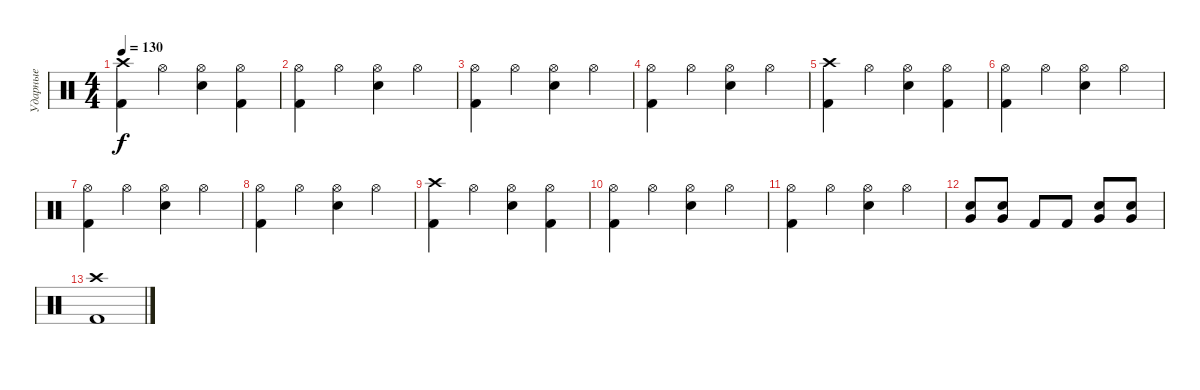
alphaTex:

\track ("Ударные" "Ударные") {instrument percussion}
\staff {score}
\articulation defaults
\ts (4 4)
\tempo 130
\clef neutral
\ks c
("Crash high (hit)" "Kick (hit) 2").4{dy f} "Hi-Hat (open)".4 ("Hi-Hat (open)" "Snare (hit) 2").4 ("Hi-Hat (open)" "Kick (hit) 2").4 |
("Hi-Hat (open)" "Kick (hit) 2").4 "Hi-Hat (open)".4 ("Hi-Hat (open)" "Snare (hit) 2").4 "Hi-Hat (open)".4 |
("Hi-Hat (open)" "Kick (hit) 2").4 "Hi-Hat (open)".4 ("Hi-Hat (open)" "Snare (hit) 2").4 "Hi-Hat (open)".4 |
("Hi-Hat (open)" "Kick (hit) 2").4 "Hi-Hat (open)".4 ("Hi-Hat (open)" "Snare (hit) 2").4 "Hi-Hat (open)".4 |
("Crash high (hit)" "Kick (hit) 2").4 "Hi-Hat (open)".4 ("Hi-Hat (open)" "Snare (hit) 2").4 ("Hi-Hat (open)" "Kick (hit) 2").4 |
("Hi-Hat (open)" "Kick (hit) 2").4 "Hi-Hat (open)".4 ("Hi-Hat (open)" "Snare (hit) 2").4 "Hi-Hat (open)".4 |
("Hi-Hat (open)" "Kick (hit) 2").4 "Hi-Hat (open)".4 ("Hi-Hat (open)" "Snare (hit) 2").4 "Hi-Hat (open)".4 |
("Hi-Hat (open)" "Kick (hit) 2").4 "Hi-Hat (open)".4 ("Hi-Hat (open)" "Snare (hit) 2").4 "Hi-Hat (open)".4 |
("Crash high (hit)" "Kick (hit) 2").4 "Hi-Hat (open)".4 ("Hi-Hat (open)" "Snare (hit) 2").4 ("Hi-Hat (open)" "Kick (hit) 2").4 |
("Hi-Hat (open)" "Kick (hit) 2").4 "Hi-Hat (open)".4 ("Hi-Hat (open)" "Snare (hit) 2").4 "Hi-Hat (open)".4 |
("Hi-Hat (open)" "Kick (hit) 2").4 "Hi-Hat (open)".4 ("Hi-Hat (open)" "Snare (hit) 2").4 "Hi-Hat (open)".4 |
("Very Low Tom (hit)" "Snare (hit) 2").8 ("Very Low Tom (hit)" "Snare (hit) 2").8 "Kick (hit) 2".8 "Kick (hit) 2".8 ("Very Low Tom (hit)" "Snare (hit) 2").8 ("Very Low Tom (hit)" "Snare (hit) 2").8 |
("Crash high (hit)" "Kick (hit) 2").1
